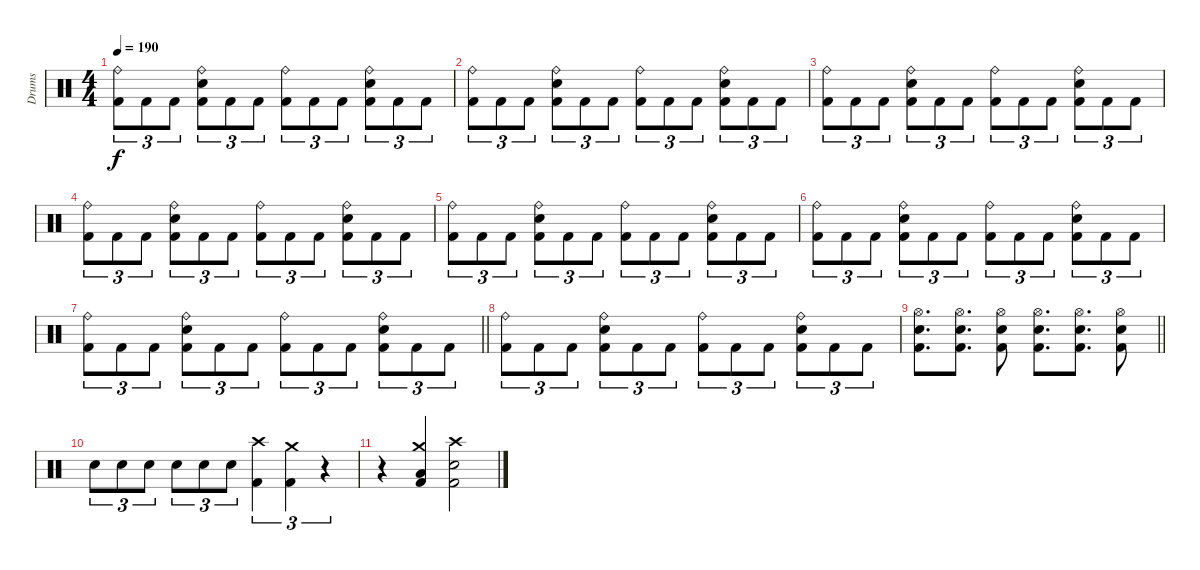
\track ("Drums" "Drums") {instrument percussion}
\staff {score}
\articulation defaults
\ts (4 4)
\tempo 190
\clef neutral
\ks c
("Ride (bell)" "Kick (hit) 2").8{tu (3 2) dy f} "Kick (hit) 2".8{tu (3 2)} "Kick (hit) 2".8{tu (3 2)} ("Ride (bell)" "Electric Snare (hit)" "Kick (hit) 2").8{tu (3 2)} "Kick (hit) 2".8{tu (3 2)} "Kick (hit) 2".8{tu (3 2)} ("Ride (bell)" "Kick (hit) 2").8{tu (3 2)} "Kick (hit) 2".8{tu (3 2)} "Kick (hit) 2".8{tu (3 2)} ("Ride (bell)" "Electric Snare (hit)" "Kick (hit) 2").8{tu (3 2)} "Kick (hit) 2".8{tu (3 2)} "Kick (hit) 2".8{tu (3 2)} |
("Ride (bell)" "Kick (hit) 2").8{tu (3 2)} "Kick (hit) 2".8{tu (3 2)} "Kick (hit) 2".8{tu (3 2)} ("Ride (bell)" "Electric Snare (hit)" "Kick (hit) 2").8{tu (3 2)} "Kick (hit) 2".8{tu (3 2)} "Kick (hit) 2".8{tu (3 2)} ("Ride (bell)" "Kick (hit) 2").8{tu (3 2)} "Kick (hit) 2".8{tu (3 2)} "Kick (hit) 2".8{tu (3 2)} ("Ride (bell)" "Electric Snare (hit)" "Kick (hit) 2").8{tu (3 2)} "Kick (hit) 2".8{tu (3 2)} "Kick (hit) 2".8{tu (3 2)} |
("Ride (bell)" "Kick (hit) 2").8{tu (3 2)} "Kick (hit) 2".8{tu (3 2)} "Kick (hit) 2".8{tu (3 2)} ("Ride (bell)" "Electric Snare (hit)" "Kick (hit) 2").8{tu (3 2)} "Kick (hit) 2".8{tu (3 2)} "Kick (hit) 2".8{tu (3 2)} ("Ride (bell)" "Kick (hit) 2").8{tu (3 2)} "Kick (hit) 2".8{tu (3 2)} "Kick (hit) 2".8{tu (3 2)} ("Ride (bell)" "Electric Snare (hit)" "Kick (hit) 2").8{tu (3 2)} "Kick (hit) 2".8{tu (3 2)} "Kick (hit) 2".8{tu (3 2)} |
("Ride (bell)" "Kick (hit) 2").8{tu (3 2)} "Kick (hit) 2".8{tu (3 2)} "Kick (hit) 2".8{tu (3 2)} ("Ride (bell)" "Electric Snare (hit)" "Kick (hit) 2").8{tu (3 2)} "Kick (hit) 2".8{tu (3 2)} "Kick (hit) 2".8{tu (3 2)} ("Ride (bell)" "Kick (hit) 2").8{tu (3 2)} "Kick (hit) 2".8{tu (3 2)} "Kick (hit) 2".8{tu (3 2)} ("Ride (bell)" "Electric Snare (hit)" "Kick (hit) 2").8{tu (3 2)} "Kick (hit) 2".8{tu (3 2)} "Kick (hit) 2".8{tu (3 2)} |
("Ride (bell)" "Kick (hit) 2").8{tu (3 2)} "Kick (hit) 2".8{tu (3 2)} "Kick (hit) 2".8{tu (3 2)} ("Ride (bell)" "Electric Snare (hit)" "Kick (hit) 2").8{tu (3 2)} "Kick (hit) 2".8{tu (3 2)} "Kick (hit) 2".8{tu (3 2)} ("Ride (bell)" "Kick (hit) 2").8{tu (3 2)} "Kick (hit) 2".8{tu (3 2)} "Kick (hit) 2".8{tu (3 2)} ("Ride (bell)" "Electric Snare (hit)" "Kick (hit) 2").8{tu (3 2)} "Kick (hit) 2".8{tu (3 2)} "Kick (hit) 2".8{tu (3 2)} |
("Ride (bell)" "Kick (hit) 2").8{tu (3 2)} "Kick (hit) 2".8{tu (3 2)} "Kick (hit) 2".8{tu (3 2)} ("Ride (bell)" "Electric Snare (hit)" "Kick (hit) 2").8{tu (3 2)} "Kick (hit) 2".8{tu (3 2)} "Kick (hit) 2".8{tu (3 2)} ("Ride (bell)" "Kick (hit) 2").8{tu (3 2)} "Kick (hit) 2".8{tu (3 2)} "Kick (hit) 2".8{tu (3 2)} ("Ride (bell)" "Electric Snare (hit)" "Kick (hit) 2").8{tu (3 2)} "Kick (hit) 2".8{tu (3 2)} "Kick (hit) 2".8{tu (3 2)} |
\barLineRight lightlight
("Ride (bell)" "Kick (hit) 2").8{tu (3 2)} "Kick (hit) 2".8{tu (3 2)} "Kick (hit) 2".8{tu (3 2)} ("Ride (bell)" "Electric Snare (hit)" "Kick (hit) 2").8{tu (3 2)} "Kick (hit) 2".8{tu (3 2)} "Kick (hit) 2".8{tu (3 2)} ("Ride (bell)" "Kick (hit) 2").8{tu (3 2)} "Kick (hit) 2".8{tu (3 2)} "Kick (hit) 2".8{tu (3 2)} ("Ride (bell)" "Electric Snare (hit)" "Kick (hit) 2").8{tu (3 2)} "Kick (hit) 2".8{tu (3 2)} "Kick (hit) 2".8{tu (3 2)} |
("Ride (bell)" "Kick (hit) 2").8{tu (3 2)} "Kick (hit) 2".8{tu (3 2)} "Kick (hit) 2".8{tu (3 2)} ("Ride (bell)" "Electric Snare (hit)" "Kick (hit) 2").8{tu (3 2)} "Kick (hit) 2".8{tu (3 2)} "Kick (hit) 2".8{tu (3 2)} ("Ride (bell)" "Kick (hit) 2").8{tu (3 2)} "Kick (hit) 2".8{tu (3 2)} "Kick (hit) 2".8{tu (3 2)} ("Ride (bell)" "Electric Snare (hit)" "Kick (hit) 2").8{tu (3 2)} "Kick (hit) 2".8{tu (3 2)} "Kick (hit) 2".8{tu (3 2)} |
\barLineRight lightlight
("Hi-Hat (open)" "Electric Snare (hit)" "Kick (hit) 2").8{d} ("Hi-Hat (open)" "Electric Snare (hit)" "Kick (hit) 2").8{d} ("Hi-Hat (open)" "Electric Snare (hit)" "Kick (hit) 2").8 ("Hi-Hat (open)" "Electric Snare (hit)" "Kick (hit) 2").8{d} ("Hi-Hat (open)" "Electric Snare (hit)" "Kick (hit) 2").8{d} ("Hi-Hat (open)" "Electric Snare (hit)" "Kick (hit) 2").8 |
"Electric Snare (hit)".8{tu (3 2)} "Electric Snare (hit)".8{tu (3 2)} "Electric Snare (hit)".8{tu (3 2)} "Electric Snare (hit)".8{tu (3 2)} "Electric Snare (hit)".8{tu (3 2)} "Electric Snare (hit)".8{tu (3 2)} ("Crash high (hit)" "Kick (hit) 2").4{tu (3 2)} ("Crash medium (hit)" "Kick (hit) 2").4{tu (3 2)} r.4{tu (3 2)} |
r.4 ("Crash medium (hit)" "Low Floor Tom (hit)" "Kick (hit) 2").4 ("Crash high (hit)" "Electric Snare (hit)" "Kick (hit) 2").2
